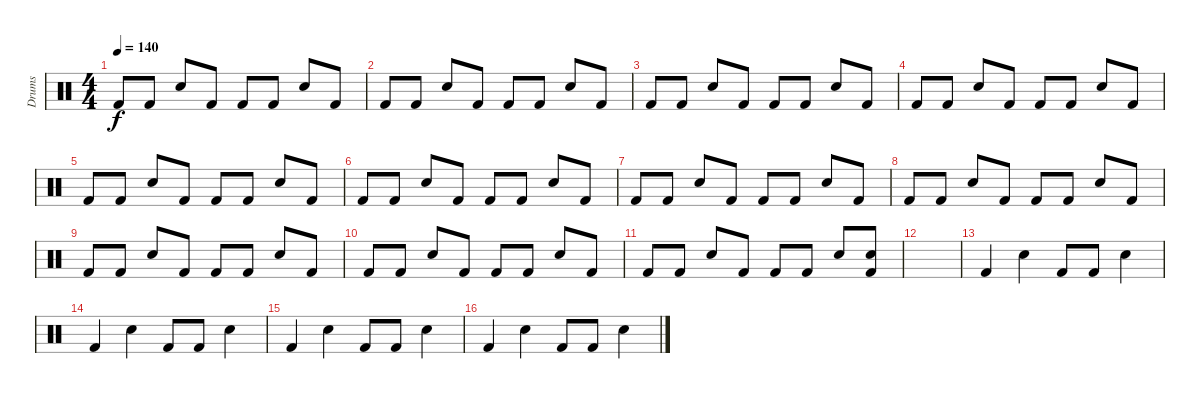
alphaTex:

\track ("Drums" "Drums") {instrument percussion}
\staff {score}
\articulation defaults
\ts (4 4)
\tempo 140
\clef neutral
\ks c "Kick (hit) 2".8{dy f} "Kick (hit) 2".8 "Snare (hit) 2".8 "Kick (hit) 2".8 "Kick (hit) 2".8 "Kick (hit) 2".8 "Snare (hit) 2".8 "Kick (hit) 2".8
|
"Kick (hit) 2".8 "Kick (hit) 2".8 "Snare (hit) 2".8 "Kick (hit) 2".8 "Kick (hit) 2".8 "Kick (hit) 2".8 "Snare (hit) 2".8 "Kick (hit) 2".8 |
"Kick (hit) 2".8 "Kick (hit) 2".8 "Snare (hit) 2".8 "Kick (hit) 2".8 "Kick (hit) 2".8 "Kick (hit) 2".8 "Snare (hit) 2".8 "Kick (hit) 2".8 |
"Kick (hit) 2".8 "Kick (hit) 2".8 "Snare (hit) 2".8 "Kick (hit) 2".8 "Kick (hit) 2".8 "Kick (hit) 2".8 "Snare (hit) 2".8 "Kick (hit) 2".8 |
"Kick (hit) 2".8 "Kick (hit) 2".8 "Snare (hit) 2".8 "Kick (hit) 2".8 "Kick (hit) 2".8 "Kick (hit) 2".8 "Snare (hit) 2".8 "Kick (hit) 2".8 |
"Kick (hit) 2".8 "Kick (hit) 2".8 "Snare (hit) 2".8 "Kick (hit) 2".8 "Kick (hit) 2".8 "Kick (hit) 2".8 "Snare (hit) 2".8 "Kick (hit) 2".8 |
"Kick (hit) 2".8 "Kick (hit) 2".8 "Snare (hit) 2".8 "Kick (hit) 2".8 "Kick (hit) 2".8 "Kick (hit) 2".8 "Snare (hit) 2".8 "Kick (hit) 2".8 |
"Kick (hit) 2".8 "Kick (hit) 2".8 "Snare (hit) 2".8 "Kick (hit) 2".8 "Kick (hit) 2".8 "Kick (hit) 2".8 "Snare (hit) 2".8 "Kick (hit) 2".8 |
"Kick (hit) 2".8 "Kick (hit) 2".8 "Snare (hit) 2".8 "Kick (hit) 2".8 "Kick (hit) 2".8 "Kick (hit) 2".8 "Snare (hit) 2".8 "Kick (hit) 2".8 |
"Kick (hit) 2".8 "Kick (hit) 2".8 "Snare (hit) 2".8 "Kick (hit) 2".8 "Kick (hit) 2".8 "Kick (hit) 2".8 "Snare (hit) 2".8 "Kick (hit) 2".8 |
"Kick (hit) 2".8 "Kick (hit) 2".8 "Snare (hit) 2".8 "Kick (hit) 2".8 "Kick (hit) 2".8 "Kick (hit) 2".8 "Snare (hit) 2".8 ("Kick (hit) 2" "Snare (hit) 2").8 |
|
"Kick (hit) 2".4 "Snare (hit) 2".4 "Kick (hit) 2".8 "Kick (hit) 2".8 "Snare (hit) 2".4 |
"Kick (hit) 2".4 "Snare (hit) 2".4 "Kick (hit) 2".8 "Kick (hit) 2".8 "Snare (hit) 2".4 |
"Kick (hit) 2".4 "Snare (hit) 2".4 "Kick (hit) 2".8 "Kick (hit) 2".8 "Snare (hit) 2".4 |
"Kick (hit) 2".4 "Snare (hit) 2".4 "Kick (hit) 2".8 "Kick (hit) 2".8 "Snare (hit) 2".4
